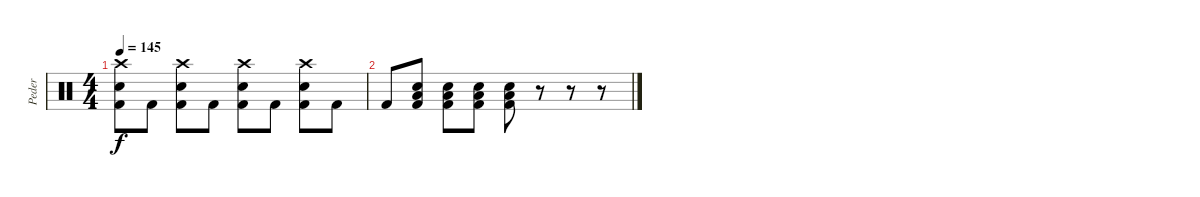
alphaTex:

\track ("Peder" "Peder") {instrument percussion}
\staff {score}
\articulation defaults
\ts (4 4)
\tempo 145
\clef neutral
\ks c
("Crash high (hit)" "Electric Snare (hit)" "Kick (hit) 2").8{dy f} "Kick (hit) 2".8 ("Crash high (hit)" "Electric Snare (hit)" "Kick (hit) 2").8 "Kick (hit) 2".8 ("Crash high (hit)" "Electric Snare (hit)" "Kick (hit) 2").8 "Kick (hit) 2".8 ("Crash high (hit)" "Electric Snare (hit)" "Kick (hit) 2").8 "Kick (hit) 2".8 |
"Kick (hit) 2".8 ("Low Tom (hit)" "Electric Snare (hit)" "Kick (hit) 2").8 ("Low Tom (hit)" "Electric Snare (hit)" "Kick (hit) 2").8 ("Low Tom (hit)" "Electric Snare (hit)" "Kick (hit) 2").8 ("Low Tom (hit)" "Electric Snare (hit)" "Kick (hit) 2").8 r.8 r.8 r.8
